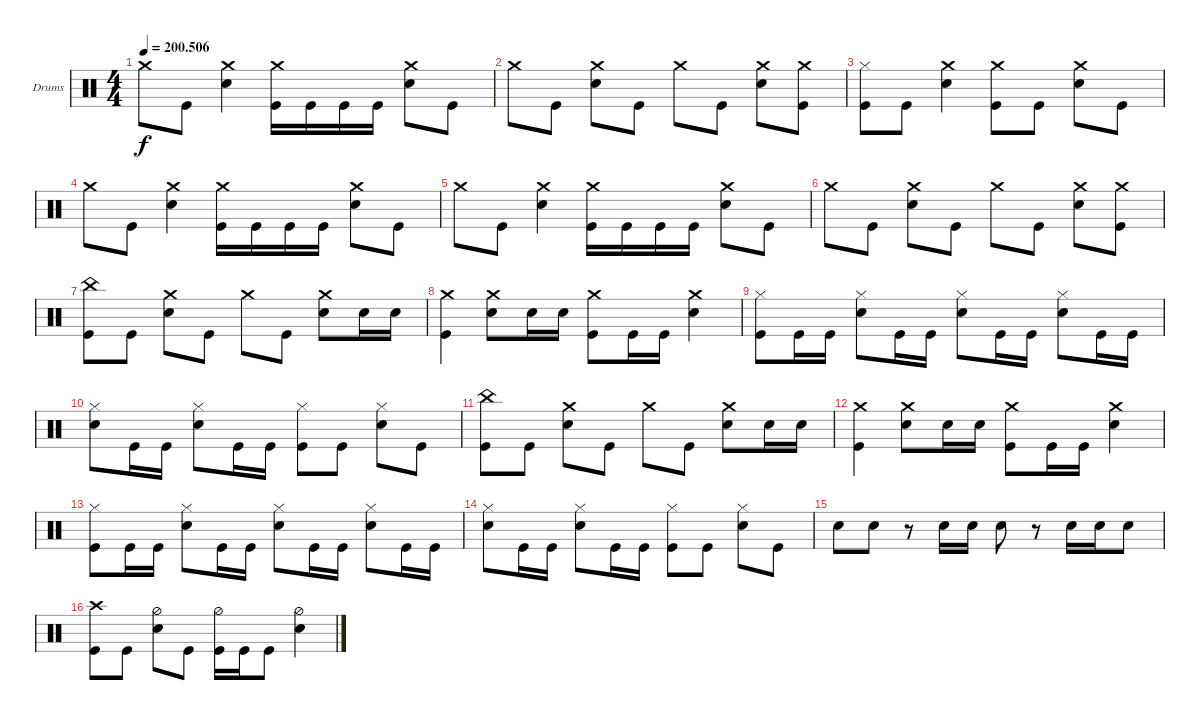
\bracketExtendMode groupsimilarinstruments
\firstSystemTrackNameOrientation horizontal
\otherSystemsTrackNameOrientation horizontal
\track ("Emile Bardou" "Drums") {instrument percussion}
\staff {score}
\articulation defaults
\ts (4 4)
\tempo
200.506
\accidentals auto
\clef neutral
\ottava regular
\simile none
\ks c "Crash medium (hit)".8{dy f} "Kick (hit)".8
("Crash medium (hit)" "Snare (hit) 2").4 ("Crash medium (hit)" "Kick (hit)").16 "Kick (hit)".16 "Kick (hit)".16 "Kick (hit)".16 ("Crash medium (hit)" "Snare (hit) 2").8 "Kick (hit)".8 |
"Crash medium (hit)".8 "Kick (hit)".8 ("Crash medium (hit)" "Snare (hit) 2").8 "Kick (hit)".8 "Crash medium (hit)".8 "Kick (hit)".8 ("Crash medium (hit)" "Snare (hit) 2").8 ("Crash medium (hit)" "Kick (hit)").8 |
("Kick (hit)" "Hi-Hat (closed)").8 "Kick (hit)".8 ("Crash medium (hit)" "Snare (hit) 2").4 ("Crash medium (hit)" "Kick (hit)").8 "Kick (hit)".8 ("Crash medium (hit)" "Snare (hit) 2").8 "Kick (hit)".8 |
"Crash medium (hit)".8 "Kick (hit)".8 ("Crash medium (hit)" "Snare (hit) 2").4 ("Crash medium (hit)" "Kick (hit)").16 "Kick (hit)".16 "Kick (hit)".16 "Kick (hit)".16 ("Crash medium (hit)" "Snare (hit) 2").8 "Kick (hit)".8 |
"Crash medium (hit)".8 "Kick (hit)".8 ("Crash medium (hit)" "Snare (hit) 2").4 ("Crash medium (hit)" "Kick (hit)").16 "Kick (hit)".16 "Kick (hit)".16 "Kick (hit)".16 ("Crash medium (hit)" "Snare (hit) 2").8 "Kick (hit)".8 |
"Crash medium (hit)".8 "Kick (hit)".8 ("Crash medium (hit)" "Snare (hit) 2").8 "Kick (hit)".8 "Crash medium (hit)".8 "Kick (hit)".8 ("Crash medium (hit)" "Snare (hit) 2").8 ("Crash medium (hit)" "Kick (hit)").8 |
("Kick (hit)" "China (hit)").8 "Kick (hit)".8 ("Crash medium (hit)" "Snare (hit) 2").8 "Kick (hit)".8 "Crash medium (hit)".8 "Kick (hit)".8 ("Crash medium (hit)" "Snare (hit) 2").8 "Snare (hit) 2".16 "Snare (hit) 2".16 |
("Crash medium (hit)" "Kick (hit)").4 ("Crash medium (hit)" "Snare (hit) 2").8 "Snare (hit) 2".16 "Snare (hit) 2".16 ("Crash medium (hit)" "Kick (hit)").8 "Kick (hit)".16 "Kick (hit)".16 ("Crash medium (hit)" "Snare (hit) 2").4 |
("Kick (hit)" "Hi-Hat (closed)").8 "Kick (hit)".16 "Kick (hit)".16 ("Snare (hit) 2" "Hi-Hat (closed)").8 "Kick (hit)".16 "Kick (hit)".16 ("Snare (hit) 2" "Hi-Hat (closed)").8 "Kick (hit)".16 "Kick (hit)".16 ("Snare (hit) 2" "Hi-Hat (closed)").8 "Kick (hit)".16 "Kick (hit)".16 |
("Snare (hit) 2" "Hi-Hat (closed)").8 "Kick (hit)".16 "Kick (hit)".16 ("Snare (hit) 2" "Hi-Hat (closed)").8 "Kick (hit)".16 "Kick (hit)".16 ("Kick (hit)" "Hi-Hat (closed)").8 "Kick (hit)".8 ("Hi-Hat (closed)" "Snare (hit) 2").8 "Kick (hit)".8 |
("Kick (hit)" "China (hit)").8 "Kick (hit)".8 ("Crash medium (hit)" "Snare (hit) 2").8 "Kick (hit)".8 "Crash medium (hit)".8 "Kick (hit)".8 ("Crash medium (hit)" "Snare (hit) 2").8 "Snare (hit) 2".16 "Snare (hit) 2".16 |
("Crash medium (hit)" "Kick (hit)").4 ("Crash medium (hit)" "Snare (hit) 2").8 "Snare (hit) 2".16 "Snare (hit) 2".16 ("Crash medium (hit)" "Kick (hit)").8 "Kick (hit)".16 "Kick (hit)".16 ("Crash medium (hit)" "Snare (hit) 2").4 |
("Kick (hit)" "Hi-Hat (closed)").8 "Kick (hit)".16 "Kick (hit)".16 ("Snare (hit) 2" "Hi-Hat (closed)").8 "Kick (hit)".16 "Kick (hit)".16 ("Snare (hit) 2" "Hi-Hat (closed)").8 "Kick (hit)".16 "Kick (hit)".16 ("Snare (hit) 2" "Hi-Hat (closed)").8 "Kick (hit)".16 "Kick (hit)".16 |
("Snare (hit) 2" "Hi-Hat (closed)").8 "Kick (hit)".16 "Kick (hit)".16 ("Snare (hit) 2" "Hi-Hat (closed)").8 "Kick (hit)".16 "Kick (hit)".16 ("Kick (hit)" "Hi-Hat (closed)").8 "Kick (hit)".8 ("Hi-Hat (closed)" "Snare (hit) 2").8 "Kick (hit)".8 |
"Snare (hit) 2".8 "Snare (hit) 2".8 r.8 "Snare (hit) 2".16 "Snare (hit) 2".16 "Snare (hit) 2".8 r.8 "Snare (hit) 2".16 "Snare (hit) 2".16 "Snare (hit) 2".8 |
("Kick (hit)" "Crash high (hit)").8 "Kick (hit)".8 ("Snare (hit) 2" "Hi-Hat (half)").8 "Kick (hit)".8 ("Kick (hit)" "Hi-Hat (half)").16 "Kick (hit)".16 "Kick (hit)".8 ("Snare (hit) 2" "Hi-Hat (half)").4
